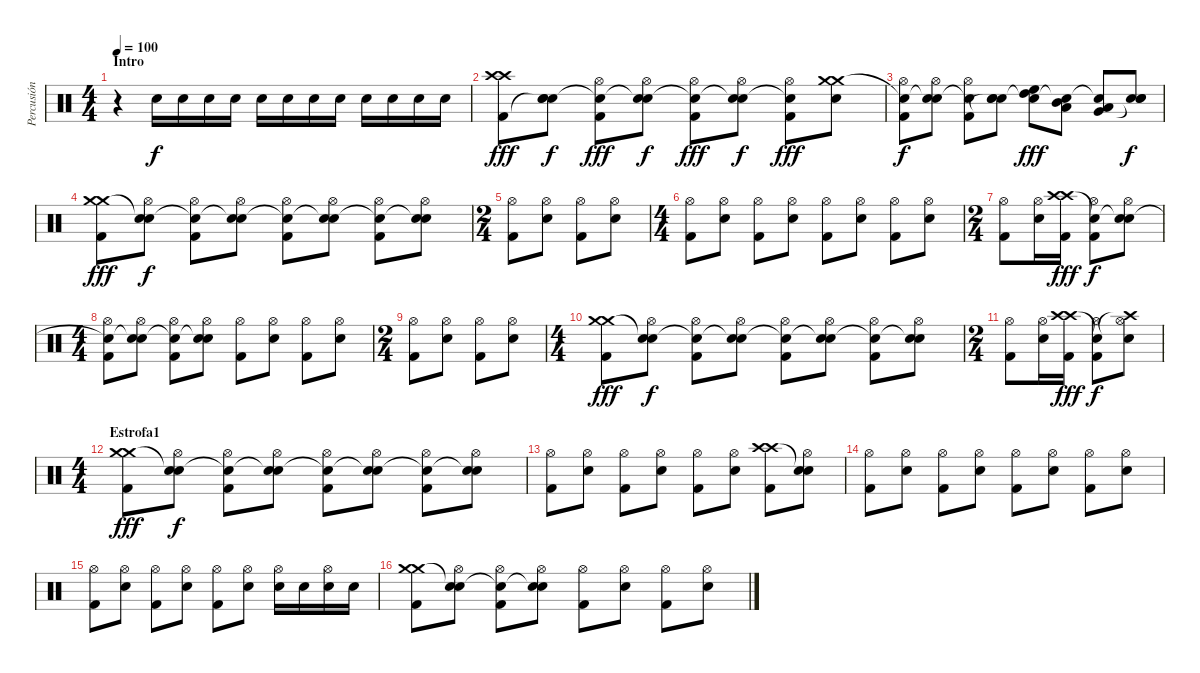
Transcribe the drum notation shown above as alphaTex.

\track ("Percusión" "Percusión") {instrument percussion}
\staff {score}
\articulation defaults
\ts (4 4)
\section ("" "Intro")
\tempo 100
\clef neutral
\ks c
r.4{dy f} "Snare (hit) 2".16 "Snare (hit) 2".16 "Snare (hit) 2".16 "Snare (hit) 2".16 "Snare (hit) 2".16 "Snare (hit) 2".16 "Snare (hit) 2".16 "Snare (hit) 2".16 "Snare (hit) 2".16 "Snare (hit) 2".16 "Snare (hit) 2".16 "Snare (hit) 2".16 |
("Crash high (hit)" "Kick (hit) 2" "Crash high (hit)").8{dy fff} ("Snare (hit) 2" "Snare (hit)"{t} "Snare (hit) 2").8{bd 480 dy f} ("Hi-Hat (open)" "Kick (hit) 2" "Snare (hit)"{t}).8{dy fff} ("Hi-Hat (open)" "Snare (hit) 2" "Snare (hit)"{t}).8{dy f} ("Hi-Hat (open)" "Kick (hit) 2" "Snare (hit)"{t}).8{dy fff} ("Hi-Hat (open)" "Snare (hit) 2" "Snare (hit)"{t}).8{dy f} ("Hi-Hat (open)" "Kick (hit) 2" "Snare (hit)"{t}).8{dy fff} ("Crash medium (hit)" "Snare (hit) 2" "Crash medium (hit)").8 |
("Hi-Hat (open)" "Kick (hit) 2" "Snare (hit)"{t}).8{dy f} ("Hi-Hat (open)" "Snare (hit) 2" "Snare (hit)"{t}).8 ("Hi-Hat (open)" "Kick (hit) 2" "Snare (hit)"{t}).8 ("Snare (hit) 2" "Snare (hit)"{t} "Snare (hit) 2").8{bd 480} ("High Tom (hit)" "High Floor Tom (hit)" "Snare (hit)"{t}).8{dy fff} ("Mid Tom (hit)" "Low Tom (hit)" "Snare (hit)"{t}).8 ("Low Floor Tom (hit)" "Very Low Tom (hit)" "Snare (hit)"{t}).8 ("Snare (hit) 2" "Snare (hit)"{t} "Snare (hit) 2").8{bd 480 dy f} |
("Crash medium (hit)" "Kick (hit) 2" "Crash medium (hit)").8{dy fff} ("Hi-Hat (open)" "Snare (hit) 2" "Snare (hit)"{t}).8{dy f} ("Hi-Hat (open)" "Kick (hit) 2" "Snare (hit)"{t}).8 ("Hi-Hat (open)" "Snare (hit) 2" "Snare (hit)"{t}).8 ("Hi-Hat (open)" "Kick (hit) 2" "Snare (hit)"{t}).8 ("Hi-Hat (open)" "Snare (hit) 2" "Snare (hit)"{t}).8 ("Hi-Hat (open)" "Kick (hit) 2" "Snare (hit)"{t}).8 ("Hi-Hat (open)" "Snare (hit) 2" "Snare (hit)"{t}).8 |
\ts (2 4)
("Hi-Hat (open)" "Kick (hit) 2").8 ("Hi-Hat (open)" "Snare (hit) 2").8 ("Hi-Hat (open)" "Kick (hit) 2").8 ("Hi-Hat (open)" "Snare (hit) 2").8 |
\ts (4 4)
("Hi-Hat (open)" "Kick (hit) 2").8 ("Hi-Hat (open)" "Snare (hit) 2").8 ("Hi-Hat (open)" "Kick (hit) 2").8 ("Hi-Hat (open)" "Snare (hit) 2").8 ("Hi-Hat (open)" "Kick (hit) 2").8 ("Hi-Hat (open)" "Snare (hit) 2").8 ("Hi-Hat (open)" "Kick (hit) 2").8 ("Hi-Hat (open)" "Snare (hit) 2").8 |
\ts (2 4)
("Hi-Hat (open)" "Kick (hit) 2").8 ("Hi-Hat (open)" "Snare (hit) 2").16 ("Crash high (hit)" "Kick (hit) 2" "Crash high (hit)").16{dy fff} ("Hi-Hat (open)" "Kick (hit) 2" "Snare (hit)"{t}).8{dy f} ("Hi-Hat (open)" "Snare (hit) 2" "Snare (hit)"{t}).8 |
\ts (4 4)
("Hi-Hat (open)" "Kick (hit) 2" "Snare (hit)"{t}).8 ("Hi-Hat (open)" "Snare (hit) 2" "Snare (hit)"{t}).8 ("Hi-Hat (open)" "Kick (hit) 2" "Snare (hit)"{t}).8 ("Hi-Hat (open)" "Snare (hit) 2" "Snare (hit)"{t}).8 ("Hi-Hat (open)" "Kick (hit) 2").8 ("Hi-Hat (open)" "Snare (hit) 2").8 ("Hi-Hat (open)" "Kick (hit) 2").8 ("Hi-Hat (open)" "Snare (hit) 2").8 |
\ts (2 4)
("Hi-Hat (open)" "Kick (hit) 2").8 ("Hi-Hat (open)" "Snare (hit) 2").8 ("Hi-Hat (open)" "Kick (hit) 2").8 ("Hi-Hat (open)" "Snare (hit) 2").8 |
\ts (4 4)
("Crash medium (hit)" "Kick (hit) 2" "Crash medium (hit)").8{dy fff} ("Hi-Hat (open)" "Snare (hit) 2" "Snare (hit)"{t}).8{dy f} ("Hi-Hat (open)" "Kick (hit) 2" "Snare (hit)"{t}).8 ("Hi-Hat (open)" "Snare (hit) 2" "Snare (hit)"{t}).8 ("Hi-Hat (open)" "Kick (hit) 2" "Snare (hit)"{t}).8 ("Hi-Hat (open)" "Snare (hit) 2" "Snare (hit)"{t}).8 ("Hi-Hat (open)" "Kick (hit) 2" "Snare (hit)"{t}).8 ("Hi-Hat (open)" "Snare (hit) 2" "Snare (hit)"{t}).8 |
\ts (2 4)
("Hi-Hat (open)" "Kick (hit) 2").8 ("Hi-Hat (open)" "Snare (hit) 2").16 ("Crash high (hit)" "Kick (hit) 2" "Crash high (hit)").16{dy fff} ("Hi-Hat (open)" "Kick (hit) 2" "Snare (hit)"{t}).8{dy f} ("Hi-Hat (open)" "Snare (hit) 2" "Crash high (hit)"{t}).8 |
\ts (4 4)
\section ("" "Estrofa1")
("Crash medium (hit)" "Kick (hit) 2" "Crash medium (hit)").8{dy fff} ("Hi-Hat (open)" "Snare (hit) 2" "Snare (hit)"{t}).8{dy f} ("Hi-Hat (open)" "Kick (hit) 2" "Snare (hit)"{t}).8 ("Hi-Hat (open)" "Snare (hit) 2" "Snare (hit)"{t}).8 ("Hi-Hat (open)" "Kick (hit) 2" "Snare (hit)"{t}).8 ("Hi-Hat (open)" "Snare (hit) 2" "Snare (hit)"{t}).8 ("Hi-Hat (open)" "Kick (hit) 2" "Snare (hit)"{t}).8 ("Hi-Hat (open)" "Snare (hit) 2" "Snare (hit)"{t}).8 |
("Hi-Hat (open)" "Kick (hit) 2").8 ("Hi-Hat (open)" "Snare (hit) 2").8 ("Hi-Hat (open)" "Kick (hit) 2").8 ("Hi-Hat (open)" "Snare (hit) 2").8 ("Hi-Hat (open)" "Kick (hit) 2").8 ("Hi-Hat (open)" "Snare (hit) 2").8 ("Crash high (hit)" "Kick (hit) 2" "Crash high (hit)").8 ("Hi-Hat (open)" "Snare (hit) 2" "Snare (hit)"{t}).8 |
("Hi-Hat (open)" "Kick (hit) 2").8 ("Hi-Hat (open)" "Snare (hit) 2").8 ("Hi-Hat (open)" "Kick (hit) 2").8 ("Hi-Hat (open)" "Snare (hit) 2").8 ("Hi-Hat (open)" "Kick (hit) 2").8 ("Hi-Hat (open)" "Snare (hit) 2").8 ("Hi-Hat (open)" "Kick (hit) 2").8 ("Hi-Hat (open)" "Snare (hit) 2").8 |
("Hi-Hat (open)" "Kick (hit) 2").8 ("Hi-Hat (open)" "Snare (hit) 2").8 ("Hi-Hat (open)" "Kick (hit) 2").8 ("Hi-Hat (open)" "Snare (hit) 2").8 ("Hi-Hat (open)" "Kick (hit) 2").8 ("Hi-Hat (open)" "Snare (hit) 2").8 ("Hi-Hat (open)" "Snare (hit) 2").16 "Snare (hit) 2".16 ("Hi-Hat (open)" "Snare (hit) 2").16 "Snare (hit) 2".16 |
("Crash medium (hit)" "Kick (hit) 2" "Crash medium (hit)").8 ("Hi-Hat (open)" "Snare (hit) 2" "Snare (hit)"{t}).8 ("Hi-Hat (open)" "Kick (hit) 2" "Snare (hit)"{t}).8 ("Hi-Hat (open)" "Snare (hit) 2" "Snare (hit)"{t}).8 ("Hi-Hat (open)" "Kick (hit) 2").8 ("Hi-Hat (open)" "Snare (hit) 2").8 ("Hi-Hat (open)" "Kick (hit) 2").8 ("Hi-Hat (open)" "Snare (hit) 2").8
